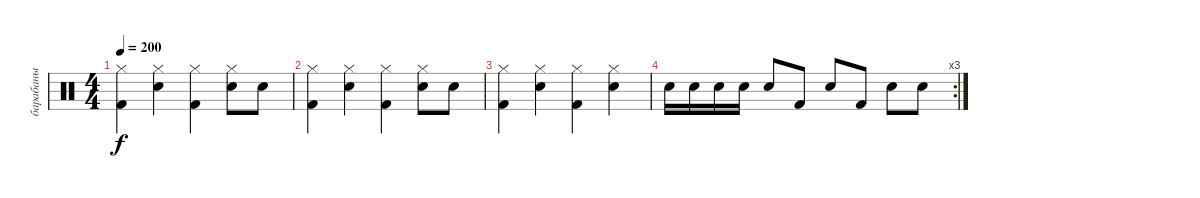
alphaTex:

\track ("барабаны" "барабаны") {instrument percussion}
\staff {score}
\articulation defaults
\ts (4 4)
\tempo 200
\clef neutral
\ks c
("Hi-Hat (closed)" "Kick (hit) 2").4{dy f} ("Hi-Hat (closed)" "Snare (hit) 2").4 ("Hi-Hat (closed)" "Kick (hit) 2").4 ("Hi-Hat (closed)" "Snare (hit) 2").8 "Snare (hit) 2".8 |
("Hi-Hat (closed)" "Kick (hit) 2").4 ("Hi-Hat (closed)" "Snare (hit) 2").4 ("Hi-Hat (closed)" "Kick (hit) 2").4 ("Hi-Hat (closed)" "Snare (hit) 2").8 "Snare (hit) 2".8 |
("Hi-Hat (closed)" "Kick (hit) 2").4 ("Hi-Hat (closed)" "Snare (hit) 2").4 ("Hi-Hat (closed)" "Kick (hit) 2").4 ("Hi-Hat (closed)" "Snare (hit) 2").4 |
\rc 3 "Snare (hit) 2".16 "Snare (hit) 2".16 "Snare (hit) 2".16 "Snare (hit) 2".16 "Snare (hit) 2".8 "Kick (hit) 2".8 "Snare (hit) 2".8 "Kick (hit) 2".8 "Snare (hit) 2".8 "Snare (hit) 2".8
